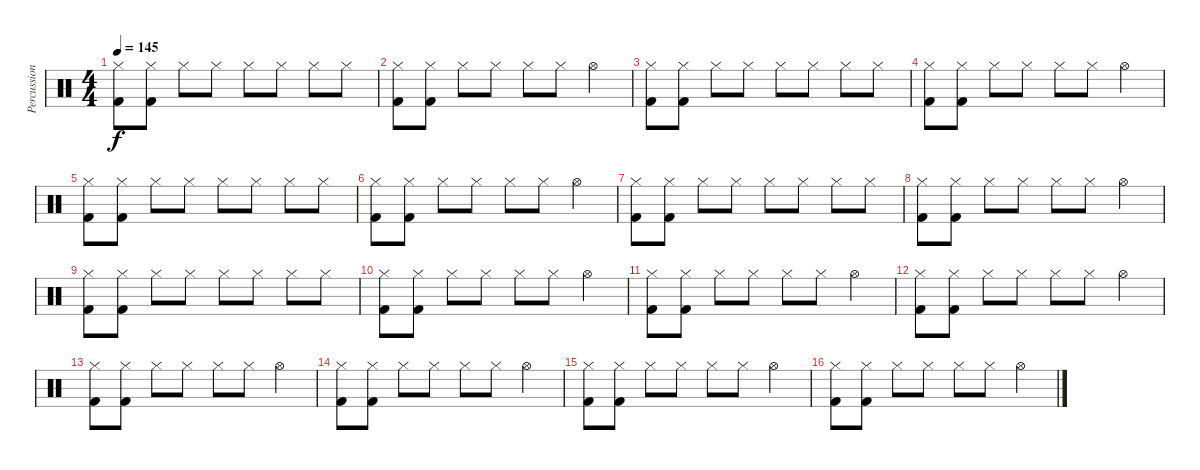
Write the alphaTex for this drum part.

\track ("Percussion" "Percussion") {instrument percussion}
\staff {score}
\articulation defaults
\ts (4 4)
\tempo 145
\clef neutral
\ks c
("Hi-Hat (closed)" "Kick (hit) 2").8{dy f} ("Hi-Hat (closed)" "Kick (hit) 2").8 "Hi-Hat (closed)".8 "Hi-Hat (closed)".8 "Hi-Hat (closed)".8 "Hi-Hat (closed)".8 "Hi-Hat (closed)".8 "Hi-Hat (closed)".8 |
("Hi-Hat (closed)" "Kick (hit) 2").8 ("Hi-Hat (closed)" "Kick (hit) 2").8 "Hi-Hat (closed)".8 "Hi-Hat (closed)".8 "Hi-Hat (closed)".8 "Hi-Hat (closed)".8 "Hi-Hat (open)".4 |
("Hi-Hat (closed)" "Kick (hit) 2").8 ("Hi-Hat (closed)" "Kick (hit) 2").8 "Hi-Hat (closed)".8 "Hi-Hat (closed)".8 "Hi-Hat (closed)".8 "Hi-Hat (closed)".8 "Hi-Hat (closed)".8 "Hi-Hat (closed)".8 |
("Hi-Hat (closed)" "Kick (hit) 2").8 ("Hi-Hat (closed)" "Kick (hit) 2").8 "Hi-Hat (closed)".8 "Hi-Hat (closed)".8 "Hi-Hat (closed)".8 "Hi-Hat (closed)".8 "Hi-Hat (open)".4 |
("Hi-Hat (closed)" "Kick (hit) 2").8 ("Hi-Hat (closed)" "Kick (hit) 2").8 "Hi-Hat (closed)".8 "Hi-Hat (closed)".8 "Hi-Hat (closed)".8 "Hi-Hat (closed)".8 "Hi-Hat (closed)".8 "Hi-Hat (closed)".8 |
("Hi-Hat (closed)" "Kick (hit) 2").8 ("Hi-Hat (closed)" "Kick (hit) 2").8 "Hi-Hat (closed)".8 "Hi-Hat (closed)".8 "Hi-Hat (closed)".8 "Hi-Hat (closed)".8 "Hi-Hat (open)".4 |
("Hi-Hat (closed)" "Kick (hit) 2").8 ("Hi-Hat (closed)" "Kick (hit) 2").8 "Hi-Hat (closed)".8 "Hi-Hat (closed)".8 "Hi-Hat (closed)".8 "Hi-Hat (closed)".8 "Hi-Hat (closed)".8 "Hi-Hat (closed)".8 |
("Hi-Hat (closed)" "Kick (hit) 2").8 ("Hi-Hat (closed)" "Kick (hit) 2").8 "Hi-Hat (closed)".8 "Hi-Hat (closed)".8 "Hi-Hat (closed)".8 "Hi-Hat (closed)".8 "Hi-Hat (open)".4 |
("Hi-Hat (closed)" "Kick (hit) 2").8 ("Hi-Hat (closed)" "Kick (hit) 2").8 "Hi-Hat (closed)".8 "Hi-Hat (closed)".8 "Hi-Hat (closed)".8 "Hi-Hat (closed)".8 "Hi-Hat (closed)".8 "Hi-Hat (closed)".8 |
("Hi-Hat (closed)" "Kick (hit) 2").8 ("Hi-Hat (closed)" "Kick (hit) 2").8 "Hi-Hat (closed)".8 "Hi-Hat (closed)".8 "Hi-Hat (closed)".8 "Hi-Hat (closed)".8 "Hi-Hat (open)".4 |
("Hi-Hat (closed)" "Kick (hit) 2").8 ("Hi-Hat (closed)" "Kick (hit) 2").8 "Hi-Hat (closed)".8 "Hi-Hat (closed)".8 "Hi-Hat (closed)".8 "Hi-Hat (closed)".8 "Hi-Hat (open)".4 |
("Hi-Hat (closed)" "Kick (hit) 2").8 ("Hi-Hat (closed)" "Kick (hit) 2").8 "Hi-Hat (closed)".8 "Hi-Hat (closed)".8 "Hi-Hat (closed)".8 "Hi-Hat (closed)".8 "Hi-Hat (open)".4 |
("Hi-Hat (closed)" "Kick (hit) 2").8 ("Hi-Hat (closed)" "Kick (hit) 2").8 "Hi-Hat (closed)".8 "Hi-Hat (closed)".8 "Hi-Hat (closed)".8 "Hi-Hat (closed)".8 "Hi-Hat (open)".4 |
("Hi-Hat (closed)" "Kick (hit) 2").8 ("Hi-Hat (closed)" "Kick (hit) 2").8 "Hi-Hat (closed)".8 "Hi-Hat (closed)".8 "Hi-Hat (closed)".8 "Hi-Hat (closed)".8 "Hi-Hat (open)".4 |
("Hi-Hat (closed)" "Kick (hit) 2").8 ("Hi-Hat (closed)" "Kick (hit) 2").8 "Hi-Hat (closed)".8 "Hi-Hat (closed)".8 "Hi-Hat (closed)".8 "Hi-Hat (closed)".8 "Hi-Hat (open)".4 |
("Hi-Hat (closed)" "Kick (hit) 2").8 ("Hi-Hat (closed)" "Kick (hit) 2").8 "Hi-Hat (closed)".8 "Hi-Hat (closed)".8 "Hi-Hat (closed)".8 "Hi-Hat (closed)".8 "Hi-Hat (open)".4
